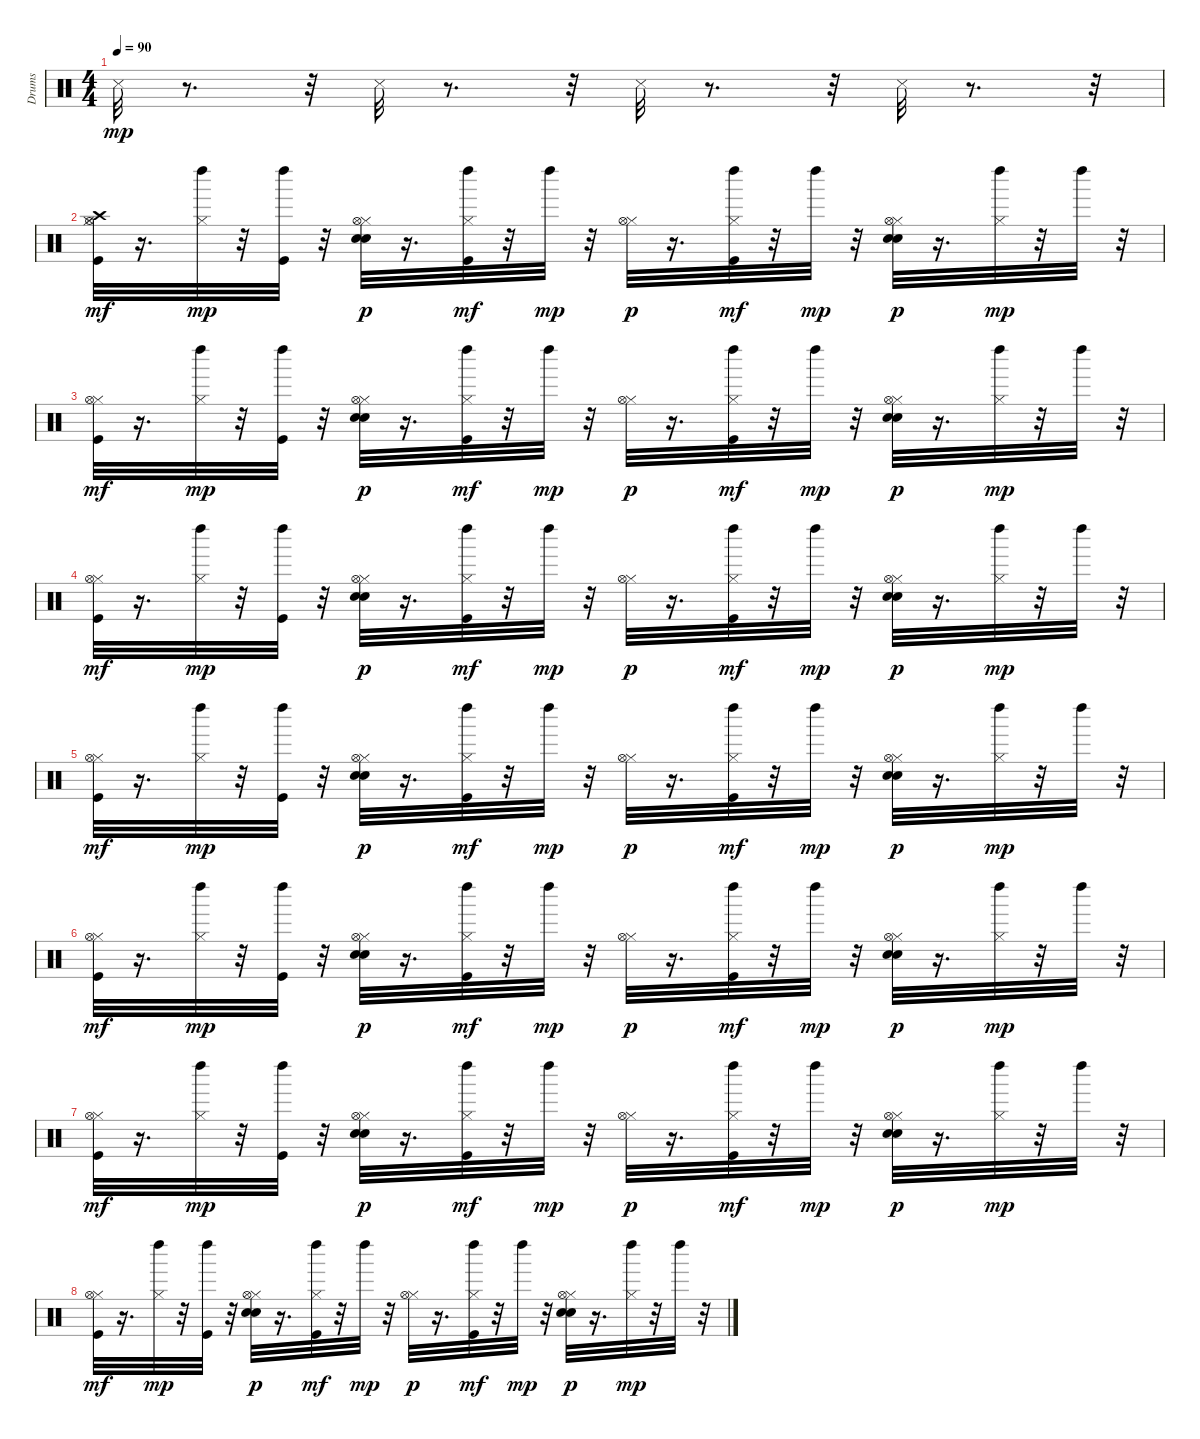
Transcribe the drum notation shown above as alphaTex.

\track ("Drums" "Drums") {instrument percussion}
\staff {score}
\articulation defaults
\ts (4 4)
\tempo 90
\clef neutral
\ks c "Snare (side stick) 3".32{dy mp}
r.8{d} r.32 "Snare (side stick) 3".32 r.8{d} r.32 "Snare (side stick) 3".32 r.8{d} r.32 "Snare (side stick) 3".32 r.8{d} r.32 |
("Crash high (hit)" "Hi-Hat (closed)" "Hi-Hat (open)" "Kick (hit)").32{dy mf} r.16{d} ("Hi-Hat (closed)" "Left Maraca (hit)").32{dy mp} r.32 ("Kick (hit)" "Left Maraca (hit)").32 r.32 ("Snare (hit) 2" "Electric Snare (hit)" "Hi-Hat (closed)" "Hi-Hat (open)").32{dy p} r.16{d} ("Hi-Hat (closed)" "Left Maraca (hit)" "Kick (hit)").32{dy mf} r.32 "Left Maraca (hit)".32{dy mp} r.32 ("Hi-Hat (closed)" "Hi-Hat (open)").32{dy p} r.16{d} ("Hi-Hat (closed)" "Left Maraca (hit)" "Kick (hit)").32{dy mf} r.32 "Left Maraca (hit)".32{dy mp} r.32 ("Snare (hit) 2" "Electric Snare (hit)" "Hi-Hat (closed)" "Hi-Hat (open)").32{dy p} r.16{d} ("Hi-Hat (closed)" "Left Maraca (hit)").32{dy mp} r.32 "Left Maraca (hit)".32 r.32 |
("Hi-Hat (closed)" "Hi-Hat (open)" "Kick (hit)").32{dy mf} r.16{d} ("Hi-Hat (closed)" "Left Maraca (hit)").32{dy mp} r.32 ("Kick (hit)" "Left Maraca (hit)").32 r.32 ("Snare (hit) 2" "Electric Snare (hit)" "Hi-Hat (closed)" "Hi-Hat (open)").32{dy p} r.16{d} ("Hi-Hat (closed)" "Left Maraca (hit)" "Kick (hit)").32{dy mf} r.32 "Left Maraca (hit)".32{dy mp} r.32 ("Hi-Hat (closed)" "Hi-Hat (open)").32{dy p} r.16{d} ("Hi-Hat (closed)" "Left Maraca (hit)" "Kick (hit)").32{dy mf} r.32 "Left Maraca (hit)".32{dy mp} r.32 ("Snare (hit) 2" "Electric Snare (hit)" "Hi-Hat (closed)" "Hi-Hat (open)").32{dy p} r.16{d} ("Hi-Hat (closed)" "Left Maraca (hit)").32{dy mp} r.32 "Left Maraca (hit)".32 r.32 |
("Hi-Hat (closed)" "Hi-Hat (open)" "Kick (hit)").32{dy mf} r.16{d} ("Hi-Hat (closed)" "Left Maraca (hit)").32{dy mp} r.32 ("Kick (hit)" "Left Maraca (hit)").32 r.32 ("Snare (hit) 2" "Electric Snare (hit)" "Hi-Hat (closed)" "Hi-Hat (open)").32{dy p} r.16{d} ("Hi-Hat (closed)" "Left Maraca (hit)" "Kick (hit)").32{dy mf} r.32 "Left Maraca (hit)".32{dy mp} r.32 ("Hi-Hat (closed)" "Hi-Hat (open)").32{dy p} r.16{d} ("Hi-Hat (closed)" "Left Maraca (hit)" "Kick (hit)").32{dy mf} r.32 "Left Maraca (hit)".32{dy mp} r.32 ("Snare (hit) 2" "Electric Snare (hit)" "Hi-Hat (closed)" "Hi-Hat (open)").32{dy p} r.16{d} ("Hi-Hat (closed)" "Left Maraca (hit)").32{dy mp} r.32 "Left Maraca (hit)".32 r.32 |
("Hi-Hat (closed)" "Hi-Hat (open)" "Kick (hit)").32{dy mf} r.16{d} ("Hi-Hat (closed)" "Left Maraca (hit)").32{dy mp} r.32 ("Kick (hit)" "Left Maraca (hit)").32 r.32 ("Snare (hit) 2" "Electric Snare (hit)" "Hi-Hat (closed)" "Hi-Hat (open)").32{dy p} r.16{d} ("Hi-Hat (closed)" "Left Maraca (hit)" "Kick (hit)").32{dy mf} r.32 "Left Maraca (hit)".32{dy mp} r.32 ("Hi-Hat (closed)" "Hi-Hat (open)").32{dy p} r.16{d} ("Hi-Hat (closed)" "Left Maraca (hit)" "Kick (hit)").32{dy mf} r.32 "Left Maraca (hit)".32{dy mp} r.32 ("Snare (hit) 2" "Electric Snare (hit)" "Hi-Hat (closed)" "Hi-Hat (open)").32{dy p} r.16{d} ("Hi-Hat (closed)" "Left Maraca (hit)").32{dy mp} r.32 "Left Maraca (hit)".32 r.32 |
("Hi-Hat (closed)" "Hi-Hat (open)" "Kick (hit)").32{dy mf} r.16{d} ("Hi-Hat (closed)" "Left Maraca (hit)").32{dy mp} r.32 ("Kick (hit)" "Left Maraca (hit)").32 r.32 ("Snare (hit) 2" "Electric Snare (hit)" "Hi-Hat (closed)" "Hi-Hat (open)").32{dy p} r.16{d} ("Hi-Hat (closed)" "Left Maraca (hit)" "Kick (hit)").32{dy mf} r.32 "Left Maraca (hit)".32{dy mp} r.32 ("Hi-Hat (closed)" "Hi-Hat (open)").32{dy p} r.16{d} ("Hi-Hat (closed)" "Left Maraca (hit)" "Kick (hit)").32{dy mf} r.32 "Left Maraca (hit)".32{dy mp} r.32 ("Snare (hit) 2" "Electric Snare (hit)" "Hi-Hat (closed)" "Hi-Hat (open)").32{dy p} r.16{d} ("Hi-Hat (closed)" "Left Maraca (hit)").32{dy mp} r.32 "Left Maraca (hit)".32 r.32 |
("Hi-Hat (closed)" "Hi-Hat (open)" "Kick (hit)").32{dy mf} r.16{d} ("Hi-Hat (closed)" "Left Maraca (hit)").32{dy mp} r.32 ("Kick (hit)" "Left Maraca (hit)").32 r.32 ("Snare (hit) 2" "Electric Snare (hit)" "Hi-Hat (closed)" "Hi-Hat (open)").32{dy p} r.16{d} ("Hi-Hat (closed)" "Left Maraca (hit)" "Kick (hit)").32{dy mf} r.32 "Left Maraca (hit)".32{dy mp} r.32 ("Hi-Hat (closed)" "Hi-Hat (open)").32{dy p} r.16{d} ("Hi-Hat (closed)" "Left Maraca (hit)" "Kick (hit)").32{dy mf} r.32 "Left Maraca (hit)".32{dy mp} r.32 ("Snare (hit) 2" "Electric Snare (hit)" "Hi-Hat (closed)" "Hi-Hat (open)").32{dy p} r.16{d} ("Hi-Hat (closed)" "Left Maraca (hit)").32{dy mp} r.32 "Left Maraca (hit)".32 r.32 |
("Hi-Hat (closed)" "Hi-Hat (open)" "Kick (hit)").32{dy mf} r.16{d} ("Hi-Hat (closed)" "Left Maraca (hit)").32{dy mp} r.32 ("Kick (hit)" "Left Maraca (hit)").32 r.32 ("Snare (hit) 2" "Electric Snare (hit)" "Hi-Hat (closed)" "Hi-Hat (open)").32{dy p} r.16{d} ("Hi-Hat (closed)" "Left Maraca (hit)" "Kick (hit)").32{dy mf} r.32 "Left Maraca (hit)".32{dy mp} r.32 ("Hi-Hat (closed)" "Hi-Hat (open)").32{dy p} r.16{d} ("Hi-Hat (closed)" "Left Maraca (hit)" "Kick (hit)").32{dy mf} r.32 "Left Maraca (hit)".32{dy mp} r.32 ("Snare (hit) 2" "Electric Snare (hit)" "Hi-Hat (closed)" "Hi-Hat (open)").32{dy p} r.16{d} ("Hi-Hat (closed)" "Left Maraca (hit)").32{dy mp} r.32 "Left Maraca (hit)".32 r.32
